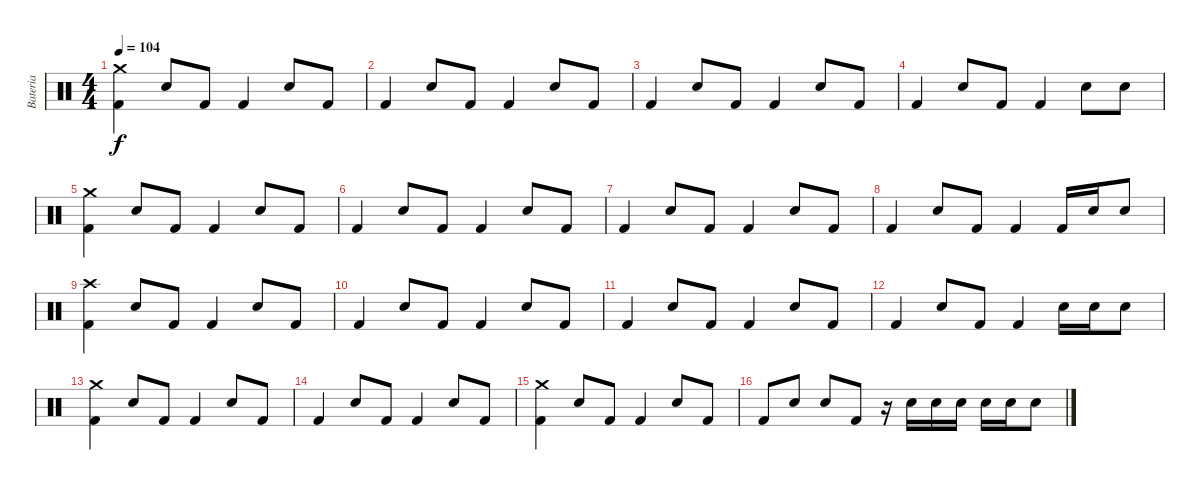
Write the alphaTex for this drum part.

\track ("Bateria" "Bateria") {instrument percussion}
\staff {score}
\articulation defaults
\ts (4 4)
\tempo 104
\clef neutral
\ks c
("Crash medium (hit)" "Kick (hit) 2").4{dy f} "Snare (hit) 2".8 "Kick (hit) 2".8 "Kick (hit) 2".4 "Snare (hit) 2".8 "Kick (hit) 2".8 |
"Kick (hit) 2".4 "Snare (hit) 2".8 "Kick (hit) 2".8 "Kick (hit) 2".4 "Snare (hit) 2".8 "Kick (hit) 2".8 |
"Kick (hit) 2".4 "Snare (hit) 2".8 "Kick (hit) 2".8 "Kick (hit) 2".4 "Snare (hit) 2".8 "Kick (hit) 2".8 |
"Kick (hit) 2".4 "Snare (hit) 2".8 "Kick (hit) 2".8 "Kick (hit) 2".4 "Snare (hit) 2".8 "Snare (hit) 2".8 |
("Crash medium (hit)" "Kick (hit) 2").4 "Snare (hit) 2".8 "Kick (hit) 2".8 "Kick (hit) 2".4 "Snare (hit) 2".8 "Kick (hit) 2".8 |
"Kick (hit) 2".4 "Snare (hit) 2".8 "Kick (hit) 2".8 "Kick (hit) 2".4 "Snare (hit) 2".8 "Kick (hit) 2".8 |
"Kick (hit) 2".4 "Snare (hit) 2".8 "Kick (hit) 2".8 "Kick (hit) 2".4 "Snare (hit) 2".8 "Kick (hit) 2".8 |
"Kick (hit) 2".4 "Snare (hit) 2".8 "Kick (hit) 2".8 "Kick (hit) 2".4 "Kick (hit) 2".16 "Snare (hit) 2".16 "Snare (hit) 2".8 |
("Crash high (hit)" "Kick (hit) 2").4 "Snare (hit) 2".8 "Kick (hit) 2".8 "Kick (hit) 2".4 "Snare (hit) 2".8 "Kick (hit) 2".8 |
"Kick (hit) 2".4 "Snare (hit) 2".8 "Kick (hit) 2".8 "Kick (hit) 2".4 "Snare (hit) 2".8 "Kick (hit) 2".8 |
"Kick (hit) 2".4 "Snare (hit) 2".8 "Kick (hit) 2".8 "Kick (hit) 2".4 "Snare (hit) 2".8 "Kick (hit) 2".8 |
"Kick (hit) 2".4 "Snare (hit) 2".8 "Kick (hit) 2".8 "Kick (hit) 2".4 "Snare (hit) 2".16 "Snare (hit) 2".16 "Snare (hit) 2".8 |
("Crash medium (hit)" "Kick (hit) 2").4 "Snare (hit) 2".8 "Kick (hit) 2".8 "Kick (hit) 2".4 "Snare (hit) 2".8 "Kick (hit) 2".8 |
"Kick (hit) 2".4 "Snare (hit) 2".8 "Kick (hit) 2".8 "Kick (hit) 2".4 "Snare (hit) 2".8 "Kick (hit) 2".8 |
("Crash medium (hit)" "Kick (hit) 2").4 "Snare (hit) 2".8 "Kick (hit) 2".8 "Kick (hit) 2".4 "Snare (hit) 2".8 "Kick (hit) 2".8 |
"Kick (hit) 2".8 "Snare (hit) 2".8 "Snare (hit) 2".8 "Kick (hit) 2".8 r.16 "Snare (hit) 2".16 "Snare (hit) 2".16 "Snare (hit) 2".16 "Snare (hit) 2".16 "Snare (hit) 2".16 "Snare (hit) 2".8
